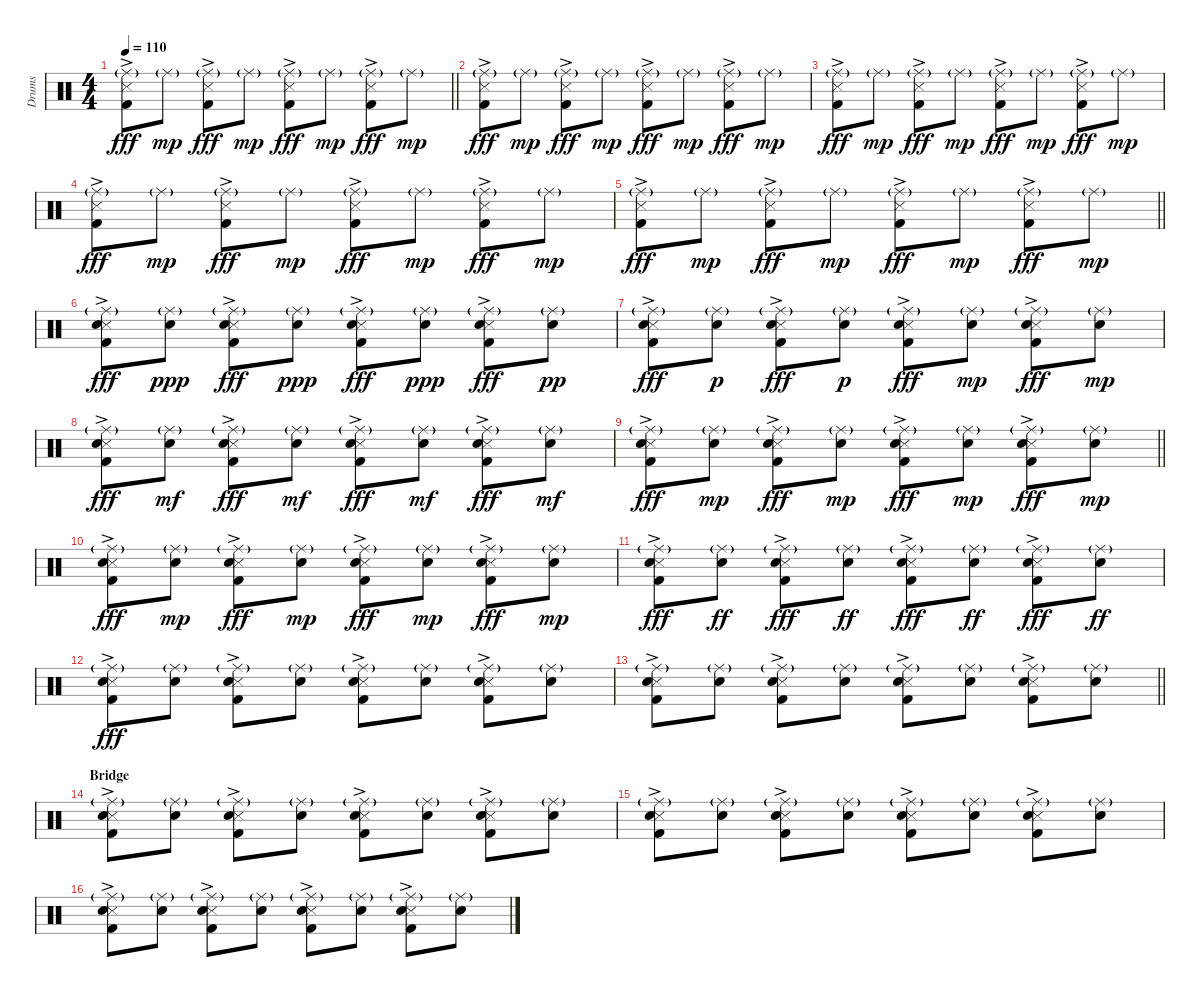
\track ("Drums" "Drums") {instrument percussion}
\staff {score}
\articulation defaults
\ts (4 4)
\tempo 110
\clef neutral
\barLineRight lightlight
\ks c
("Snare (side stick) 3" "Ride (middle)"{g} "Kick (hit) 2"{ac}).8{dy fff} "Ride (middle)"{g}.8{dy mp} ("Snare (side stick) 3" "Ride (middle)"{g} "Kick (hit) 2"{ac}).8{dy fff} "Ride (middle)"{g}.8{dy mp} ("Snare (side stick) 3" "Ride (middle)"{g} "Kick (hit) 2"{ac}).8{dy fff} "Ride (middle)"{g}.8{dy mp} ("Snare (side stick) 3" "Ride (middle)"{g} "Kick (hit) 2"{ac}).8{dy fff} "Ride (middle)"{g}.8{dy mp} |
("Snare (side stick) 3" "Ride (middle)"{g} "Kick (hit) 2"{ac}).8{dy fff} "Ride (middle)"{g}.8{dy mp} ("Snare (side stick) 3" "Ride (middle)"{g} "Kick (hit) 2"{ac}).8{dy fff} "Ride (middle)"{g}.8{dy mp} ("Snare (side stick) 3" "Ride (middle)"{g} "Kick (hit) 2"{ac}).8{dy fff} "Ride (middle)"{g}.8{dy mp} ("Snare (side stick) 3" "Ride (middle)"{g} "Kick (hit) 2"{ac}).8{dy fff} "Ride (middle)"{g}.8{dy mp} |
("Snare (side stick) 3" "Ride (middle)"{g} "Kick (hit) 2"{ac}).8{dy fff} "Ride (middle)"{g}.8{dy mp} ("Snare (side stick) 3" "Ride (middle)"{g} "Kick (hit) 2"{ac}).8{dy fff} "Ride (middle)"{g}.8{dy mp} ("Snare (side stick) 3" "Ride (middle)"{g} "Kick (hit) 2"{ac}).8{dy fff} "Ride (middle)"{g}.8{dy mp} ("Snare (side stick) 3" "Ride (middle)"{g} "Kick (hit) 2"{ac}).8{dy fff} "Ride (middle)"{g}.8{dy mp} |
("Snare (side stick) 3" "Ride (middle)"{g} "Kick (hit) 2"{ac}).8{dy fff} "Ride (middle)"{g}.8{dy mp} ("Snare (side stick) 3" "Ride (middle)"{g} "Kick (hit) 2"{ac}).8{dy fff} "Ride (middle)"{g}.8{dy mp} ("Snare (side stick) 3" "Ride (middle)"{g} "Kick (hit) 2"{ac}).8{dy fff} "Ride (middle)"{g}.8{dy mp} ("Snare (side stick) 3" "Ride (middle)"{g} "Kick (hit) 2"{ac}).8{dy fff} "Ride (middle)"{g}.8{dy mp} |
\barLineRight lightlight
("Snare (side stick) 3" "Ride (middle)"{g} "Kick (hit) 2"{ac}).8{dy fff} "Ride (middle)"{g}.8{dy mp} ("Snare (side stick) 3" "Ride (middle)"{g} "Kick (hit) 2"{ac}).8{dy fff} "Ride (middle)"{g}.8{dy mp} ("Snare (side stick) 3" "Ride (middle)"{g} "Kick (hit) 2"{ac}).8{dy fff} "Ride (middle)"{g}.8{dy mp} ("Snare (side stick) 3" "Ride (middle)"{g} "Kick (hit) 2"{ac}).8{dy fff} "Ride (middle)"{g}.8{dy mp} |
("Snare (side stick) 3" "Ride (middle)"{g} "Snare (hit) 2" "Kick (hit) 2"{ac}).8{dy fff} ("Ride (middle)"{g} "Snare (hit) 2").8{dy ppp} ("Snare (side stick) 3" "Ride (middle)"{g} "Snare (hit) 2" "Kick (hit) 2"{ac}).8{dy fff} ("Ride (middle)"{g} "Snare (hit) 2").8{dy ppp} ("Snare (side stick) 3" "Ride (middle)"{g} "Snare (hit) 2" "Kick (hit) 2"{ac}).8{dy fff} ("Ride (middle)"{g} "Snare (hit) 2").8{dy ppp} ("Snare (side stick) 3" "Ride (middle)"{g} "Snare (hit) 2" "Kick (hit) 2"{ac}).8{dy fff} ("Ride (middle)"{g} "Snare (hit) 2").8{dy pp} |
("Snare (side stick) 3" "Ride (middle)"{g} "Snare (hit) 2" "Kick (hit) 2"{ac}).8{dy fff} ("Ride (middle)"{g} "Snare (hit) 2").8{dy p} ("Snare (side stick) 3" "Ride (middle)"{g} "Snare (hit) 2" "Kick (hit) 2"{ac}).8{dy fff} ("Ride (middle)"{g} "Snare (hit) 2").8{dy p} ("Snare (side stick) 3" "Ride (middle)"{g} "Snare (hit) 2" "Kick (hit) 2"{ac}).8{dy fff} ("Ride (middle)"{g} "Snare (hit) 2").8{dy mp} ("Snare (side stick) 3" "Ride (middle)"{g} "Snare (hit) 2" "Kick (hit) 2"{ac}).8{dy fff} ("Ride (middle)"{g} "Snare (hit) 2").8{dy mp} |
("Snare (side stick) 3" "Ride (middle)"{g} "Snare (hit) 2" "Kick (hit) 2"{ac}).8{dy fff} ("Ride (middle)"{g} "Snare (hit) 2").8{dy mf} ("Snare (side stick) 3" "Ride (middle)"{g} "Snare (hit) 2" "Kick (hit) 2"{ac}).8{dy fff} ("Ride (middle)"{g} "Snare (hit) 2").8{dy mf} ("Snare (side stick) 3" "Ride (middle)"{g} "Snare (hit) 2" "Kick (hit) 2"{ac}).8{dy fff} ("Ride (middle)"{g} "Snare (hit) 2").8{dy mf} ("Snare (side stick) 3" "Ride (middle)"{g} "Snare (hit) 2" "Kick (hit) 2"{ac}).8{dy fff} ("Ride (middle)"{g} "Snare (hit) 2").8{dy mf} |
\barLineRight lightlight
("Snare (side stick) 3" "Ride (middle)"{g} "Snare (hit) 2" "Kick (hit) 2"{ac}).8{dy fff} ("Ride (middle)"{g} "Snare (hit) 2").8{dy mp} ("Snare (side stick) 3" "Ride (middle)"{g} "Snare (hit) 2" "Kick (hit) 2"{ac}).8{dy fff} ("Ride (middle)"{g} "Snare (hit) 2").8{dy mp} ("Snare (side stick) 3" "Ride (middle)"{g} "Snare (hit) 2" "Kick (hit) 2"{ac}).8{dy fff} ("Ride (middle)"{g} "Snare (hit) 2").8{dy mp} ("Snare (side stick) 3" "Ride (middle)"{g} "Snare (hit) 2" "Kick (hit) 2"{ac}).8{dy fff} ("Ride (middle)"{g} "Snare (hit) 2").8{dy mp} |
("Snare (side stick) 3" "Ride (middle)"{g} "Snare (hit) 2" "Kick (hit) 2"{ac}).8{dy fff} ("Ride (middle)"{g} "Snare (hit) 2").8{dy mp} ("Snare (side stick) 3" "Ride (middle)"{g} "Snare (hit) 2" "Kick (hit) 2"{ac}).8{dy fff} ("Ride (middle)"{g} "Snare (hit) 2").8{dy mp} ("Snare (side stick) 3" "Ride (middle)"{g} "Snare (hit) 2" "Kick (hit) 2"{ac}).8{dy fff} ("Ride (middle)"{g} "Snare (hit) 2").8{dy mp} ("Snare (side stick) 3" "Ride (middle)"{g} "Snare (hit) 2" "Kick (hit) 2"{ac}).8{dy fff} ("Ride (middle)"{g} "Snare (hit) 2").8{dy mp} |
("Snare (side stick) 3" "Ride (middle)"{g} "Snare (hit) 2" "Kick (hit) 2"{ac}).8{dy fff} ("Ride (middle)"{g} "Snare (hit) 2").8{dy ff} ("Snare (side stick) 3" "Ride (middle)"{g} "Snare (hit) 2" "Kick (hit) 2"{ac}).8{dy fff} ("Ride (middle)"{g} "Snare (hit) 2").8{dy ff} ("Snare (side stick) 3" "Ride (middle)"{g} "Snare (hit) 2" "Kick (hit) 2"{ac}).8{dy fff} ("Ride (middle)"{g} "Snare (hit) 2").8{dy ff} ("Snare (side stick) 3" "Ride (middle)"{g} "Snare (hit) 2" "Kick (hit) 2"{ac}).8{dy fff} ("Ride (middle)"{g} "Snare (hit) 2").8{dy ff} |
("Snare (side stick) 3" "Ride (middle)"{g} "Snare (hit) 2" "Kick (hit) 2"{ac}).8{dy fff} ("Ride (middle)"{g} "Snare (hit) 2").8 ("Snare (side stick) 3" "Ride (middle)"{g} "Snare (hit) 2" "Kick (hit) 2"{ac}).8 ("Ride (middle)"{g} "Snare (hit) 2").8 ("Snare (side stick) 3" "Ride (middle)"{g} "Snare (hit) 2" "Kick (hit) 2"{ac}).8 ("Ride (middle)"{g} "Snare (hit) 2").8 ("Snare (side stick) 3" "Ride (middle)"{g} "Snare (hit) 2" "Kick (hit) 2"{ac}).8 ("Ride (middle)"{g} "Snare (hit) 2").8 |
\barLineRight lightlight
("Snare (side stick) 3" "Ride (middle)"{g} "Snare (hit) 2" "Kick (hit) 2"{ac}).8 ("Ride (middle)"{g} "Snare (hit) 2").8 ("Snare (side stick) 3" "Ride (middle)"{g} "Snare (hit) 2" "Kick (hit) 2"{ac}).8 ("Ride (middle)"{g} "Snare (hit) 2").8 ("Snare (side stick) 3" "Ride (middle)"{g} "Snare (hit) 2" "Kick (hit) 2"{ac}).8 ("Ride (middle)"{g} "Snare (hit) 2").8 ("Snare (side stick) 3" "Ride (middle)"{g} "Snare (hit) 2" "Kick (hit) 2"{ac}).8 ("Ride (middle)"{g} "Snare (hit) 2").8 |
\section ("" "Bridge")
("Snare (side stick) 3" "Ride (middle)"{g} "Snare (hit) 2" "Kick (hit) 2"{ac}).8 ("Ride (middle)"{g} "Snare (hit) 2").8 ("Snare (side stick) 3" "Ride (middle)"{g} "Snare (hit) 2" "Kick (hit) 2"{ac}).8 ("Ride (middle)"{g} "Snare (hit) 2").8 ("Snare (side stick) 3" "Ride (middle)"{g} "Snare (hit) 2" "Kick (hit) 2"{ac}).8 ("Ride (middle)"{g} "Snare (hit) 2").8 ("Snare (side stick) 3" "Ride (middle)"{g} "Snare (hit) 2" "Kick (hit) 2"{ac}).8 ("Ride (middle)"{g} "Snare (hit) 2").8 |
("Snare (side stick) 3" "Ride (middle)"{g} "Snare (hit) 2" "Kick (hit) 2"{ac}).8 ("Ride (middle)"{g} "Snare (hit) 2").8 ("Snare (side stick) 3" "Ride (middle)"{g} "Snare (hit) 2" "Kick (hit) 2"{ac}).8 ("Ride (middle)"{g} "Snare (hit) 2").8 ("Snare (side stick) 3" "Ride (middle)"{g} "Snare (hit) 2" "Kick (hit) 2"{ac}).8 ("Ride (middle)"{g} "Snare (hit) 2").8 ("Snare (side stick) 3" "Ride (middle)"{g} "Snare (hit) 2" "Kick (hit) 2"{ac}).8 ("Ride (middle)"{g} "Snare (hit) 2").8 |
("Snare (side stick) 3" "Ride (middle)"{g} "Snare (hit) 2" "Kick (hit) 2"{ac}).8 ("Ride (middle)"{g} "Snare (hit) 2").8 ("Snare (side stick) 3" "Ride (middle)"{g} "Snare (hit) 2" "Kick (hit) 2"{ac}).8 ("Ride (middle)"{g} "Snare (hit) 2").8 ("Snare (side stick) 3" "Ride (middle)"{g} "Snare (hit) 2" "Kick (hit) 2"{ac}).8 ("Ride (middle)"{g} "Snare (hit) 2").8 ("Snare (side stick) 3" "Ride (middle)"{g} "Snare (hit) 2" "Kick (hit) 2"{ac}).8 ("Ride (middle)"{g} "Snare (hit) 2").8
